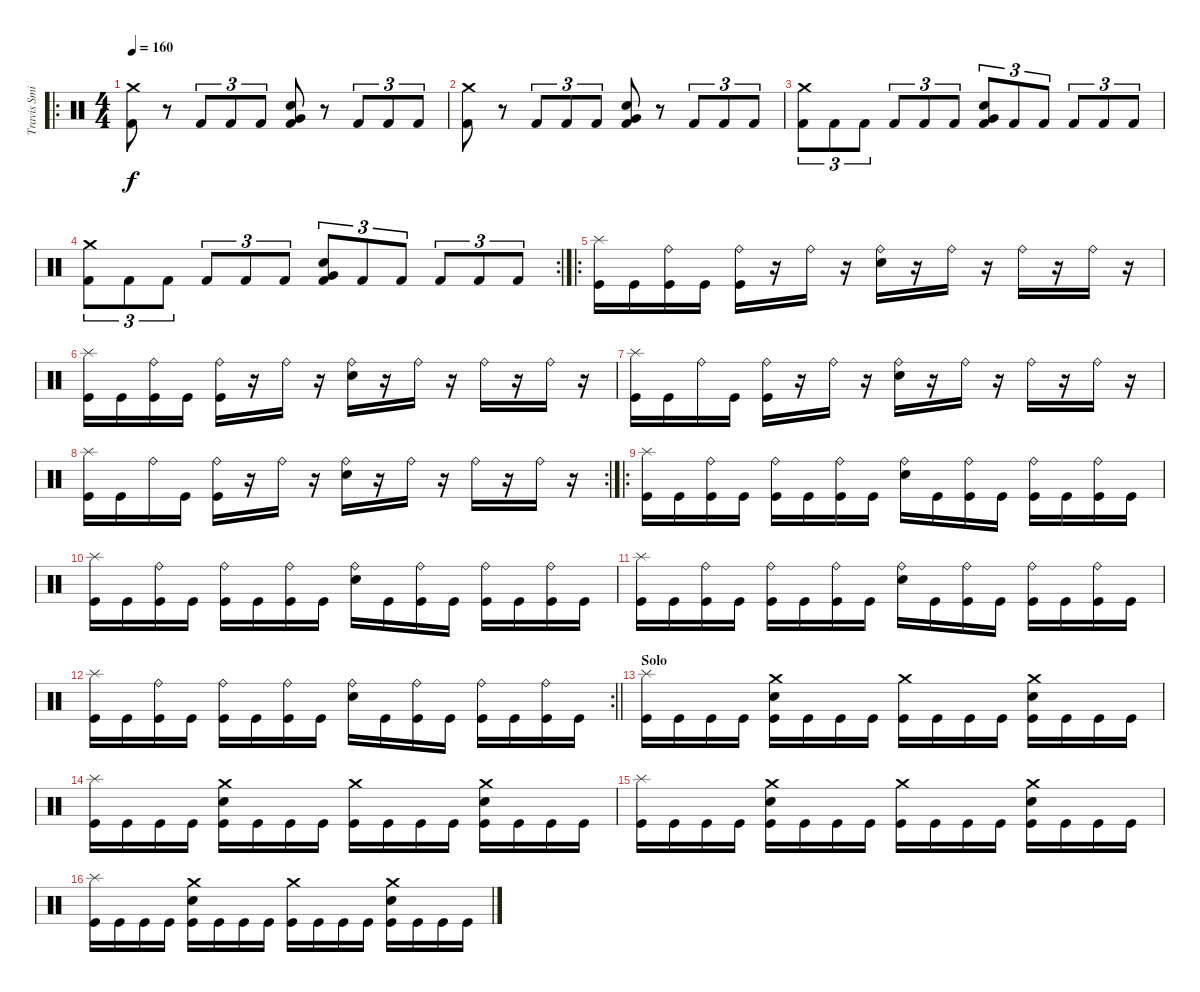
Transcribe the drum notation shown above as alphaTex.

\track ("Travis Smith" "Travis Smi") {instrument percussion}
\staff {score}
\articulation defaults
\ro
\ts (4 4)
\tempo 160
\clef neutral
\ks c
("Crash medium (hit)" "Kick (hit) 2").8{dy f} r.8 "Kick (hit) 2".8{tu (3 2)} "Kick (hit) 2".8{tu (3 2)} "Kick (hit) 2".8{tu (3 2)} ("Very Low Tom (hit)" "Electric Snare (hit)" "Kick (hit) 2").8 r.8 "Kick (hit) 2".8{tu (3 2)} "Kick (hit) 2".8{tu (3 2)} "Kick (hit) 2".8{tu (3 2)} |
("Crash medium (hit)" "Kick (hit) 2").8 r.8 "Kick (hit) 2".8{tu (3 2)} "Kick (hit) 2".8{tu (3 2)} "Kick (hit) 2".8{tu (3 2)} ("Very Low Tom (hit)" "Electric Snare (hit)" "Kick (hit) 2").8 r.8 "Kick (hit) 2".8{tu (3 2)} "Kick (hit) 2".8{tu (3 2)} "Kick (hit) 2".8{tu (3 2)} |
("Crash medium (hit)" "Kick (hit) 2").8{tu (3 2)} "Kick (hit) 2".8{tu (3 2)} "Kick (hit) 2".8{tu (3 2)} "Kick (hit) 2".8{tu (3 2)} "Kick (hit) 2".8{tu (3 2)} "Kick (hit) 2".8{tu (3 2)} ("Very Low Tom (hit)" "Electric Snare (hit)" "Kick (hit) 2").8{tu (3 2)} "Kick (hit) 2".8{tu (3 2)} "Kick (hit) 2".8{tu (3 2)} "Kick (hit) 2".8{tu (3 2)} "Kick (hit) 2".8{tu (3 2)} "Kick (hit) 2".8{tu (3 2)} |
\rc 2
("Crash medium (hit)" "Kick (hit) 2").8{tu (3 2)} "Kick (hit) 2".8{tu (3 2)} "Kick (hit) 2".8{tu (3 2)} "Kick (hit) 2".8{tu (3 2)} "Kick (hit) 2".8{tu (3 2)} "Kick (hit) 2".8{tu (3 2)} ("Very Low Tom (hit)" "Electric Snare (hit)" "Kick (hit) 2").8{tu (3 2)} "Kick (hit) 2".8{tu (3 2)} "Kick (hit) 2".8{tu (3 2)} "Kick (hit) 2".8{tu (3 2)} "Kick (hit) 2".8{tu (3 2)} "Kick (hit) 2".8{tu (3 2)} |
\ro
("Splash (hit)" "Kick (hit)").16 "Kick (hit)".16 ("Ride (bell)" "Kick (hit)").16 "Kick (hit)".16 ("Ride (bell)" "Kick (hit)").16 r.16 "Ride (bell)".16 r.16 ("Ride (bell)" "Electric Snare (hit)").16 r.16 "Ride (bell)".16 r.16 "Ride (bell)".16 r.16 "Ride (bell)".16 r.16 |
("Splash (hit)" "Kick (hit)").16 "Kick (hit)".16 ("Ride (bell)" "Kick (hit)").16 "Kick (hit)".16 ("Ride (bell)" "Kick (hit)").16 r.16 "Ride (bell)".16 r.16 ("Ride (bell)" "Electric Snare (hit)").16 r.16 "Ride (bell)".16 r.16 "Ride (bell)".16 r.16 "Ride (bell)".16 r.16 |
("Splash (hit)" "Kick (hit)").16 "Kick (hit)".16 "Ride (bell)".16 "Kick (hit)".16 ("Ride (bell)" "Kick (hit)").16 r.16 "Ride (bell)".16 r.16 ("Ride (bell)" "Electric Snare (hit)").16 r.16 "Ride (bell)".16 r.16 "Ride (bell)".16 r.16 "Ride (bell)".16 r.16 |
\rc 2
("Splash (hit)" "Kick (hit)").16 "Kick (hit)".16 "Ride (bell)".16 "Kick (hit)".16 ("Ride (bell)" "Kick (hit)").16 r.16 "Ride (bell)".16 r.16 ("Ride (bell)" "Electric Snare (hit)").16 r.16 "Ride (bell)".16 r.16 "Ride (bell)".16 r.16 "Ride (bell)".16 r.16 |
\ro
("Splash (hit)" "Kick (hit)").16 "Kick (hit)".16 ("Ride (bell)" "Kick (hit)").16 "Kick (hit)".16 ("Ride (bell)" "Kick (hit)").16 "Kick (hit)".16 ("Ride (bell)" "Kick (hit)").16 "Kick (hit)".16 ("Ride (bell)" "Electric Snare (hit)").16 "Kick (hit)".16 ("Ride (bell)" "Kick (hit)").16 "Kick (hit)".16 ("Ride (bell)" "Kick (hit)").16 "Kick (hit)".16 ("Ride (bell)" "Kick (hit)").16 "Kick (hit)".16 |
("Splash (hit)" "Kick (hit)").16 "Kick (hit)".16 ("Ride (bell)" "Kick (hit)").16 "Kick (hit)".16 ("Ride (bell)" "Kick (hit)").16 "Kick (hit)".16 ("Ride (bell)" "Kick (hit)").16 "Kick (hit)".16 ("Ride (bell)" "Electric Snare (hit)").16 "Kick (hit)".16 ("Ride (bell)" "Kick (hit)").16 "Kick (hit)".16 ("Ride (bell)" "Kick (hit)").16 "Kick (hit)".16 ("Ride (bell)" "Kick (hit)").16 "Kick (hit)".16 |
("Splash (hit)" "Kick (hit)").16 "Kick (hit)".16 ("Ride (bell)" "Kick (hit)").16 "Kick (hit)".16 ("Ride (bell)" "Kick (hit)").16 "Kick (hit)".16 ("Ride (bell)" "Kick (hit)").16 "Kick (hit)".16 ("Ride (bell)" "Electric Snare (hit)").16 "Kick (hit)".16 ("Ride (bell)" "Kick (hit)").16 "Kick (hit)".16 ("Ride (bell)" "Kick (hit)").16 "Kick (hit)".16 ("Ride (bell)" "Kick (hit)").16 "Kick (hit)".16 |
\rc 2
\barLineRight lightlight
("Splash (hit)" "Kick (hit)").16 "Kick (hit)".16 ("Ride (bell)" "Kick (hit)").16 "Kick (hit)".16 ("Ride (bell)" "Kick (hit)").16 "Kick (hit)".16 ("Ride (bell)" "Kick (hit)").16 "Kick (hit)".16 ("Ride (bell)" "Electric Snare (hit)").16 "Kick (hit)".16 ("Ride (bell)" "Kick (hit)").16 "Kick (hit)".16 ("Ride (bell)" "Kick (hit)").16 "Kick (hit)".16 ("Ride (bell)" "Kick (hit)").16 "Kick (hit)".16 |
\section ("" "Solo")
("Splash (hit)" "Kick (hit)").16 "Kick (hit)".16 "Kick (hit)".16 "Kick (hit)".16 ("Crash medium (hit)" "Electric Snare (hit)" "Kick (hit)").16 "Kick (hit)".16 "Kick (hit)".16 "Kick (hit)".16 ("Crash medium (hit)" "Kick (hit)").16 "Kick (hit)".16 "Kick (hit)".16 "Kick (hit)".16 ("Crash medium (hit)" "Electric Snare (hit)" "Kick (hit)").16 "Kick (hit)".16 "Kick (hit)".16 "Kick (hit)".16 |
("Splash (hit)" "Kick (hit)").16 "Kick (hit)".16 "Kick (hit)".16 "Kick (hit)".16 ("Crash medium (hit)" "Electric Snare (hit)" "Kick (hit)").16 "Kick (hit)".16 "Kick (hit)".16 "Kick (hit)".16 ("Crash medium (hit)" "Kick (hit)").16 "Kick (hit)".16 "Kick (hit)".16 "Kick (hit)".16 ("Crash medium (hit)" "Electric Snare (hit)" "Kick (hit)").16 "Kick (hit)".16 "Kick (hit)".16 "Kick (hit)".16 |
("Splash (hit)" "Kick (hit)").16 "Kick (hit)".16 "Kick (hit)".16 "Kick (hit)".16 ("Crash medium (hit)" "Electric Snare (hit)" "Kick (hit)").16 "Kick (hit)".16 "Kick (hit)".16 "Kick (hit)".16 ("Crash medium (hit)" "Kick (hit)").16 "Kick (hit)".16 "Kick (hit)".16 "Kick (hit)".16 ("Crash medium (hit)" "Electric Snare (hit)" "Kick (hit)").16 "Kick (hit)".16 "Kick (hit)".16 "Kick (hit)".16 |
("Splash (hit)" "Kick (hit)").16 "Kick (hit)".16 "Kick (hit)".16 "Kick (hit)".16 ("Crash medium (hit)" "Electric Snare (hit)" "Kick (hit)").16 "Kick (hit)".16 "Kick (hit)".16 "Kick (hit)".16 ("Crash medium (hit)" "Kick (hit)").16 "Kick (hit)".16 "Kick (hit)".16 "Kick (hit)".16 ("Crash medium (hit)" "Electric Snare (hit)" "Kick (hit)").16 "Kick (hit)".16 "Kick (hit)".16 "Kick (hit)".16
